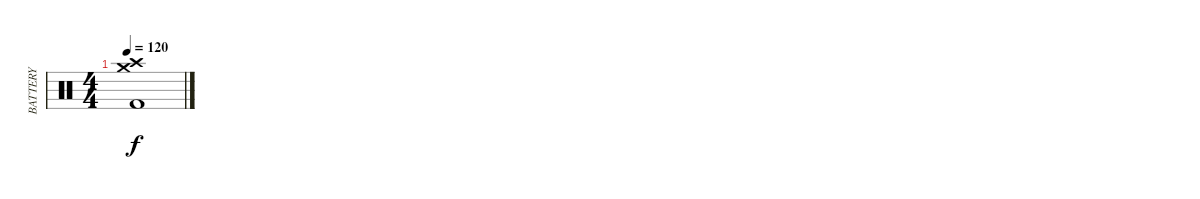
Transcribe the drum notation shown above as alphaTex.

\track ("BATTERY" "BATTERY") {instrument percussion}
\staff {score}
\articulation defaults
\ts (4 4)
\tempo 120
\clef neutral
\ks c
("Kick (hit) 2" "Crash high (hit)" "Crash medium (hit)").1{dy f}
